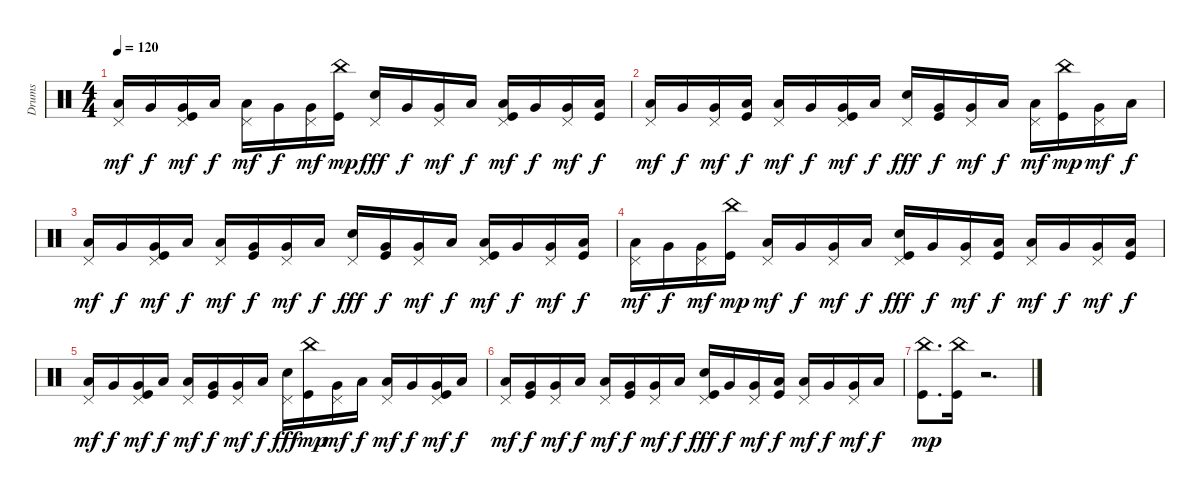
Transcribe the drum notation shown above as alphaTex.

\track ("Drums" "Drums") {instrument percussion}
\staff {score}
\articulation defaults
\ts (4 4)
\tempo 120
\clef neutral
\ks c
("Pedal Hi-Hat (hit)" "Low Tom (hit)").16{dy mf} "Very Low Tom (hit)".16{dy f} ("Pedal Hi-Hat (hit)" "Very Low Tom (hit)" "Kick (hit)").16{dy mf} "Low Floor Tom (hit)".16{dy f} ("Pedal Hi-Hat (hit)" "Low Tom (hit)").16{dy mf} "Very Low Tom (hit)".16{dy f} ("Pedal Hi-Hat (hit)" "Very Low Tom (hit)").16{dy mf} ("China (hit)" "Kick (hit)").16{dy mp} ("Pedal Hi-Hat (hit)" "Snare (hit) 2").16{dy fff} "Very Low Tom (hit)".16{dy f} ("Pedal Hi-Hat (hit)" "Very Low Tom (hit)").16{dy mf} "Low Floor Tom (hit)".16{dy f} ("Pedal Hi-Hat (hit)" "Low Tom (hit)" "Kick (hit)").16{dy mf} "Very Low Tom (hit)".16{dy f} ("Pedal Hi-Hat (hit)" "Very Low Tom (hit)").16{dy mf} ("Low Floor Tom (hit)" "Kick (hit)").16{dy f} |
("Pedal Hi-Hat (hit)" "Low Tom (hit)").16{dy mf} "Very Low Tom (hit)".16{dy f} ("Pedal Hi-Hat (hit)" "Very Low Tom (hit)").16{dy mf} ("Low Floor Tom (hit)" "Kick (hit)").16{dy f} ("Pedal Hi-Hat (hit)" "Low Tom (hit)").16{dy mf} "Very Low Tom (hit)".16{dy f} ("Pedal Hi-Hat (hit)" "Very Low Tom (hit)" "Kick (hit)").16{dy mf} "Low Floor Tom (hit)".16{dy f} ("Pedal Hi-Hat (hit)" "Snare (hit) 2").16{dy fff} ("Very Low Tom (hit)" "Kick (hit)").16{dy f} ("Pedal Hi-Hat (hit)" "Very Low Tom (hit)").16{dy mf} "Low Floor Tom (hit)".16{dy f} ("Pedal Hi-Hat (hit)" "Low Tom (hit)").16{dy mf} ("China (hit)" "Kick (hit)").16{dy mp} ("Pedal Hi-Hat (hit)" "Very Low Tom (hit)").16{dy mf} "Low Floor Tom (hit)".16{dy f} |
("Pedal Hi-Hat (hit)" "Low Tom (hit)").16{dy mf} "Very Low Tom (hit)".16{dy f} ("Pedal Hi-Hat (hit)" "Very Low Tom (hit)" "Kick (hit)").16{dy mf} "Low Floor Tom (hit)".16{dy f} ("Pedal Hi-Hat (hit)" "Low Tom (hit)").16{dy mf} ("Very Low Tom (hit)" "Kick (hit)").16{dy f} ("Pedal Hi-Hat (hit)" "Very Low Tom (hit)").16{dy mf} "Low Floor Tom (hit)".16{dy f} ("Pedal Hi-Hat (hit)" "Snare (hit) 2").16{dy fff} ("Very Low Tom (hit)" "Kick (hit)").16{dy f} ("Pedal Hi-Hat (hit)" "Very Low Tom (hit)").16{dy mf} "Low Floor Tom (hit)".16{dy f} ("Pedal Hi-Hat (hit)" "Low Tom (hit)" "Kick (hit)").16{dy mf} "Very Low Tom (hit)".16{dy f} ("Pedal Hi-Hat (hit)" "Very Low Tom (hit)").16{dy mf} ("Low Floor Tom (hit)" "Kick (hit)").16{dy f} |
("Pedal Hi-Hat (hit)" "Low Tom (hit)").16{dy mf} "Very Low Tom (hit)".16{dy f} ("Pedal Hi-Hat (hit)" "Very Low Tom (hit)").16{dy mf} ("China (hit)" "Kick (hit)").16{dy mp} ("Pedal Hi-Hat (hit)" "Low Tom (hit)").16{dy mf} "Very Low Tom (hit)".16{dy f} ("Pedal Hi-Hat (hit)" "Very Low Tom (hit)").16{dy mf} "Low Floor Tom (hit)".16{dy f} ("Pedal Hi-Hat (hit)" "Snare (hit) 2" "Kick (hit)").16{dy fff} "Very Low Tom (hit)".16{dy f} ("Pedal Hi-Hat (hit)" "Very Low Tom (hit)").16{dy mf} ("Low Floor Tom (hit)" "Kick (hit)").16{dy f} ("Pedal Hi-Hat (hit)" "Low Tom (hit)").16{dy mf} "Very Low Tom (hit)".16{dy f} ("Pedal Hi-Hat (hit)" "Very Low Tom (hit)").16{dy mf} ("Low Floor Tom (hit)" "Kick (hit)").16{dy f} |
("Pedal Hi-Hat (hit)" "Low Tom (hit)").16{dy mf} "Very Low Tom (hit)".16{dy f} ("Pedal Hi-Hat (hit)" "Very Low Tom (hit)" "Kick (hit)").16{dy mf} "Low Floor Tom (hit)".16{dy f} ("Pedal Hi-Hat (hit)" "Low Tom (hit)").16{dy mf} ("Very Low Tom (hit)" "Kick (hit)").16{dy f} ("Pedal Hi-Hat (hit)" "Very Low Tom (hit)").16{dy mf} "Low Floor Tom (hit)".16{dy f} ("Pedal Hi-Hat (hit)" "Snare (hit) 2").16{dy fff} ("China (hit)" "Kick (hit)").16{dy mp} ("Pedal Hi-Hat (hit)" "Very Low Tom (hit)").16{dy mf} "Low Floor Tom (hit)".16{dy f} ("Pedal Hi-Hat (hit)" "Low Tom (hit)").16{dy mf} "Very Low Tom (hit)".16{dy f} ("Pedal Hi-Hat (hit)" "Very Low Tom (hit)" "Kick (hit)").16{dy mf} "Low Floor Tom (hit)".16{dy f} |
("Pedal Hi-Hat (hit)" "Low Tom (hit)").16{dy mf} ("Very Low Tom (hit)" "Kick (hit)").16{dy f} ("Pedal Hi-Hat (hit)" "Very Low Tom (hit)").16{dy mf} "Low Floor Tom (hit)".16{dy f} ("Pedal Hi-Hat (hit)" "Low Tom (hit)").16{dy mf} ("Very Low Tom (hit)" "Kick (hit)").16{dy f} ("Pedal Hi-Hat (hit)" "Very Low Tom (hit)").16{dy mf} "Low Floor Tom (hit)".16{dy f} ("Pedal Hi-Hat (hit)" "Snare (hit) 2" "Kick (hit)").16{dy fff} "Very Low Tom (hit)".16{dy f} ("Pedal Hi-Hat (hit)" "Very Low Tom (hit)").16{dy mf} ("Low Floor Tom (hit)" "Kick (hit)").16{dy f} ("Pedal Hi-Hat (hit)" "Low Tom (hit)").16{dy mf} "Very Low Tom (hit)".16{dy f} ("Pedal Hi-Hat (hit)" "Very Low Tom (hit)").16{dy mf} "Low Floor Tom (hit)".16{dy f} |
("China (hit)" "Kick (hit)").8{d dy mp} ("China (hit)" "Kick (hit)").16 r.2{d}
